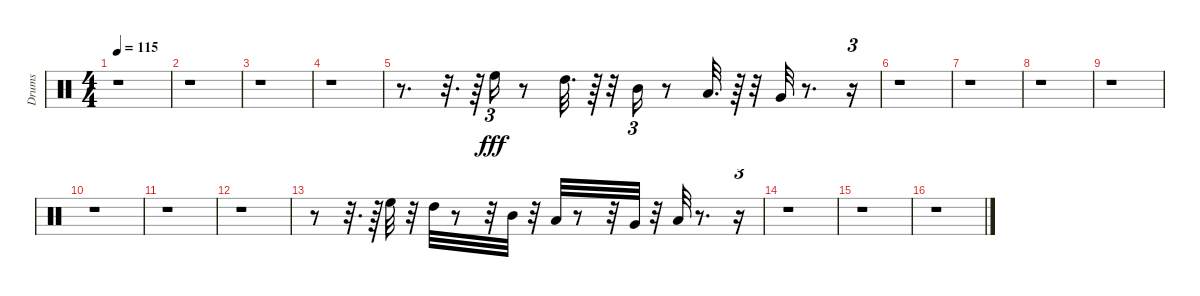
\track ("Drums" "Drums") {instrument percussion}
\staff {score}
\articulation defaults
\ts (4 4)
\tempo 115
\clef neutral
\ks c
r.1{dy fff} |
r.1 |
r.1 |
r.1 |
r.8{d} r.32{d} r.64 "High Floor Tom (hit)".16{tu (3 2)} r.8 "High Tom (hit)".32{d} r.64 r.32 "Mid Tom (hit)".16{tu (3 2)} r.8 "Low Tom (hit)".32{d} r.64 r.32 "Very Low Tom (hit)".32 r.8{d} r.16{tu (3 2)} |
r.1 |
r.1 |
r.1 |
r.1 |
r.1 |
r.1 |
r.1 |
r.8 r.32{d} r.64 "High Floor Tom (hit)".32 r.32 "High Tom (hit)".32 r.8 r.32 "Mid Tom (hit)".32 r.32 "Low Tom (hit)".32 r.8 r.32 "Very Low Tom (hit)".32 r.32 "Low Floor Tom (hit)".32 r.8{d} r.16{tu (3 2)} |
r.1 |
r.1 |
r.1
